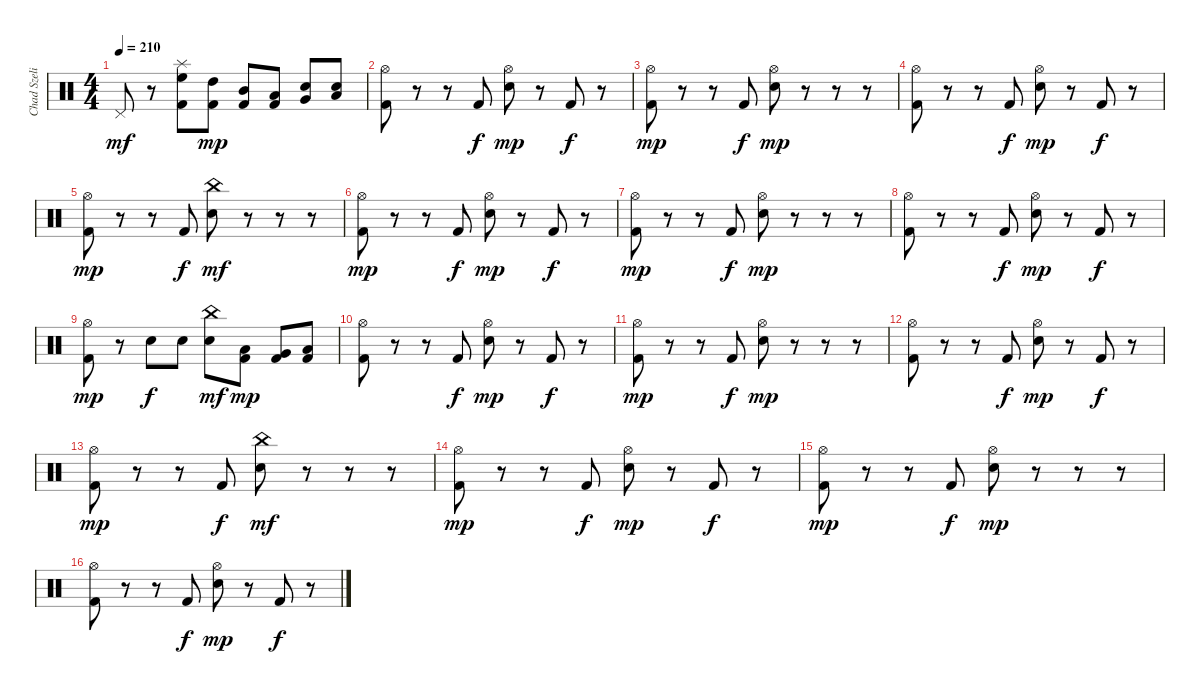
\track ("Chad Szeliga" "Chad Szeli") {instrument percussion}
\staff {score}
\articulation defaults
\ts (4 4)
\tempo 210
\clef neutral
\ks c "Pedal Hi-Hat (hit)".8{dy mf}
r.8 ("Kick (hit) 2" "High Floor Tom (hit)" "Splash (hit)").8 ("Kick (hit) 2" "High Tom (hit)").8{dy mp} ("Kick (hit) 2" "Mid Tom (hit)").8 ("Kick (hit) 2" "Low Tom (hit)").8 ("Snare (hit) 2" "Very Low Tom (hit)").8 ("Snare (hit) 2" "Low Floor Tom (hit)").8 |
("Kick (hit) 2" "Hi-Hat (open)").8 r.8 r.8 "Kick (hit) 2".8{dy f} ("Snare (hit) 2" "Hi-Hat (open)").8{dy mp} r.8 "Kick (hit) 2".8{dy f} r.8 |
("Kick (hit) 2" "Hi-Hat (open)").8{dy mp} r.8 r.8 "Kick (hit) 2".8{dy f} ("Snare (hit) 2" "Hi-Hat (open)").8{dy mp} r.8 r.8 r.8 |
("Kick (hit) 2" "Hi-Hat (open)").8 r.8 r.8 "Kick (hit) 2".8{dy f} ("Snare (hit) 2" "Hi-Hat (open)").8{dy mp} r.8 "Kick (hit) 2".8{dy f} r.8 |
("Kick (hit) 2" "Hi-Hat (open)").8{dy mp} r.8 r.8 "Kick (hit) 2".8{dy f} ("Snare (hit) 2" "China (hit)").8{dy mf} r.8 r.8 r.8 |
("Kick (hit) 2" "Hi-Hat (open)").8{dy mp} r.8 r.8 "Kick (hit) 2".8{dy f} ("Snare (hit) 2" "Hi-Hat (open)").8{dy mp} r.8 "Kick (hit) 2".8{dy f} r.8 |
("Kick (hit) 2" "Hi-Hat (open)").8{dy mp} r.8 r.8 "Kick (hit) 2".8{dy f} ("Snare (hit) 2" "Hi-Hat (open)").8{dy mp} r.8 r.8 r.8 |
("Kick (hit) 2" "Hi-Hat (open)").8 r.8 r.8 "Kick (hit) 2".8{dy f} ("Snare (hit) 2" "Hi-Hat (open)").8{dy mp} r.8 "Kick (hit) 2".8{dy f} r.8 |
("Kick (hit) 2" "Hi-Hat (open)").8{dy mp} r.8 "Snare (hit) 2".8{dy f} "Snare (hit) 2".8 ("Snare (hit) 2" "China (hit)").8{dy mf} ("Kick (hit) 2" "Low Tom (hit)").8{dy mp} ("Kick (hit) 2" "Very Low Tom (hit)").8 ("Kick (hit) 2" "Low Floor Tom (hit)").8 |
("Kick (hit) 2" "Hi-Hat (open)").8 r.8 r.8 "Kick (hit) 2".8{dy f} ("Snare (hit) 2" "Hi-Hat (open)").8{dy mp} r.8 "Kick (hit) 2".8{dy f} r.8 |
("Kick (hit) 2" "Hi-Hat (open)").8{dy mp} r.8 r.8 "Kick (hit) 2".8{dy f} ("Snare (hit) 2" "Hi-Hat (open)").8{dy mp} r.8 r.8 r.8 |
("Kick (hit) 2" "Hi-Hat (open)").8 r.8 r.8 "Kick (hit) 2".8{dy f} ("Snare (hit) 2" "Hi-Hat (open)").8{dy mp} r.8 "Kick (hit) 2".8{dy f} r.8 |
("Kick (hit) 2" "Hi-Hat (open)").8{dy mp} r.8 r.8 "Kick (hit) 2".8{dy f} ("Snare (hit) 2" "China (hit)").8{dy mf} r.8 r.8 r.8 |
("Kick (hit) 2" "Hi-Hat (open)").8{dy mp} r.8 r.8 "Kick (hit) 2".8{dy f} ("Snare (hit) 2" "Hi-Hat (open)").8{dy mp} r.8 "Kick (hit) 2".8{dy f} r.8 |
("Kick (hit) 2" "Hi-Hat (open)").8{dy mp} r.8 r.8 "Kick (hit) 2".8{dy f} ("Snare (hit) 2" "Hi-Hat (open)").8{dy mp} r.8 r.8 r.8 |
("Kick (hit) 2" "Hi-Hat (open)").8 r.8 r.8 "Kick (hit) 2".8{dy f} ("Snare (hit) 2" "Hi-Hat (open)").8{dy mp} r.8 "Kick (hit) 2".8{dy f} r.8
